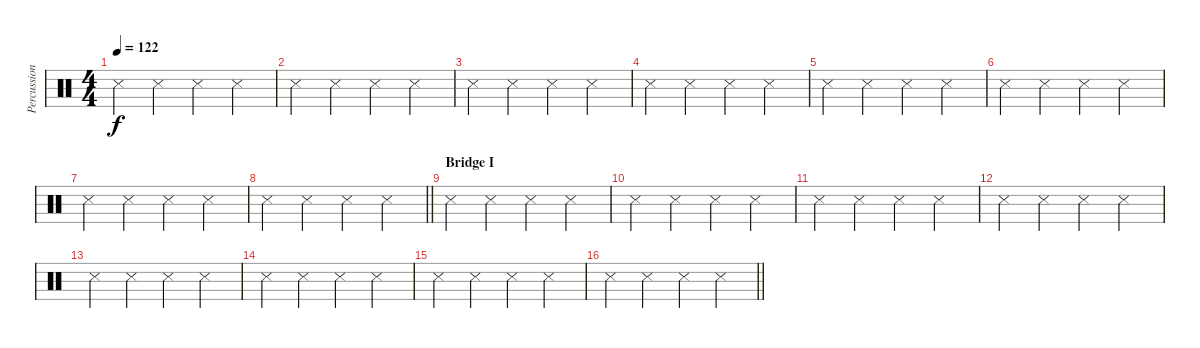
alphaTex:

\track ("Percussion" "Percussion") {instrument percussion}
\staff {score}
\articulation defaults
\ts (4 4)
\tempo 122
\clef neutral
\ks c "Snare (side stick) 3".4{dy f} "Metronome (hit)".4 "Metronome (hit)".4 "Metronome (hit)".4
|
"Snare (side stick) 3".4 "Metronome (hit)".4 "Metronome (hit)".4 "Metronome (hit)".4 |
"Snare (side stick) 3".4 "Metronome (hit)".4 "Metronome (hit)".4 "Metronome (hit)".4 |
"Snare (side stick) 3".4 "Metronome (hit)".4 "Metronome (hit)".4 "Metronome (hit)".4 |
"Snare (side stick) 3".4 "Metronome (hit)".4 "Metronome (hit)".4 "Metronome (hit)".4 |
"Snare (side stick) 3".4 "Metronome (hit)".4 "Metronome (hit)".4 "Metronome (hit)".4 |
"Snare (side stick) 3".4 "Metronome (hit)".4 "Metronome (hit)".4 "Metronome (hit)".4 |
\barLineRight lightlight "Snare (side stick) 3".4 "Metronome (hit)".4 "Metronome (hit)".4 "Metronome (hit)".4
|
\section ("" "Bridge I")
"Snare (side stick) 3".4 "Metronome (hit)".4 "Metronome (hit)".4 "Metronome (hit)".4 |
"Snare (side stick) 3".4 "Metronome (hit)".4 "Metronome (hit)".4 "Metronome (hit)".4 |
"Snare (side stick) 3".4 "Metronome (hit)".4 "Metronome (hit)".4 "Metronome (hit)".4 |
"Snare (side stick) 3".4 "Metronome (hit)".4 "Metronome (hit)".4 "Metronome (hit)".4 |
"Snare (side stick) 3".4 "Metronome (hit)".4 "Metronome (hit)".4 "Metronome (hit)".4 |
"Snare (side stick) 3".4 "Metronome (hit)".4 "Metronome (hit)".4 "Metronome (hit)".4 |
"Snare (side stick) 3".4 "Metronome (hit)".4 "Metronome (hit)".4 "Metronome (hit)".4 |
\barLineRight lightlight "Snare (side stick) 3".4 "Metronome (hit)".4 "Metronome (hit)".4 "Metronome (hit)".4
